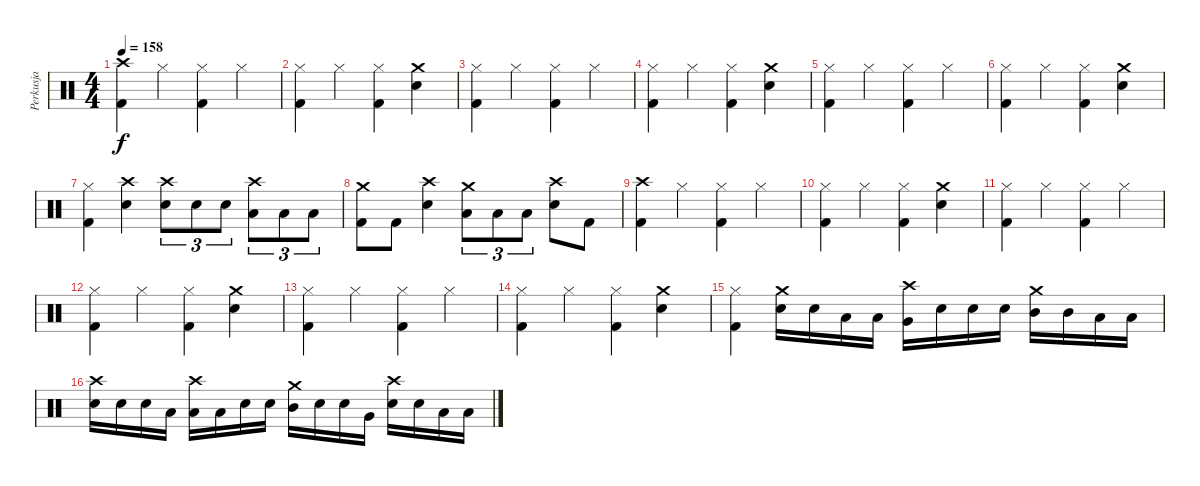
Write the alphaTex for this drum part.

\track ("Perkusja" "Perkusja") {instrument percussion}
\staff {score}
\articulation defaults
\ts (4 4)
\tempo 158
\clef neutral
\ks c
("Crash high (hit)" "Kick (hit) 2").4{dy f} "Hi-Hat (closed)".4 ("Hi-Hat (closed)" "Kick (hit) 2").4 "Hi-Hat (closed)".4 |
("Hi-Hat (closed)" "Kick (hit) 2").4 "Hi-Hat (closed)".4 ("Hi-Hat (closed)" "Kick (hit) 2").4 ("Crash medium (hit)" "Snare (hit) 2").4 |
("Hi-Hat (closed)" "Kick (hit) 2").4 "Hi-Hat (closed)".4 ("Hi-Hat (closed)" "Kick (hit) 2").4 "Hi-Hat (closed)".4 |
("Hi-Hat (closed)" "Kick (hit) 2").4 "Hi-Hat (closed)".4 ("Hi-Hat (closed)" "Kick (hit) 2").4 ("Crash medium (hit)" "Snare (hit) 2").4 |
("Hi-Hat (closed)" "Kick (hit) 2").4 "Hi-Hat (closed)".4 ("Hi-Hat (closed)" "Kick (hit) 2").4 "Hi-Hat (closed)".4 |
("Hi-Hat (closed)" "Kick (hit) 2").4 "Hi-Hat (closed)".4 ("Hi-Hat (closed)" "Kick (hit) 2").4 ("Crash medium (hit)" "Snare (hit) 2").4 |
("Hi-Hat (closed)" "Kick (hit) 2").4 ("Crash high (hit)" "Snare (hit) 2").4 ("Crash high (hit)" "Snare (hit) 2").8{tu (3 2)} "Snare (hit) 2".8{tu (3 2)} "Snare (hit) 2".8{tu (3 2)} ("Crash high (hit)" "Low Tom (hit)").8{tu (3 2)} "Low Tom (hit)".8{tu (3 2)} "Low Tom (hit)".8{tu (3 2)} |
("Crash medium (hit)" "Kick (hit) 2").8 "Kick (hit) 2".8 ("Crash high (hit)" "Snare (hit) 2").4 ("Crash medium (hit)" "Low Tom (hit)").8{tu (3 2)} "Low Tom (hit)".8{tu (3 2)} "Low Tom (hit)".8{tu (3 2)} ("Crash high (hit)" "Snare (hit) 2").8 "Kick (hit) 2".8 |
("Crash high (hit)" "Kick (hit) 2").4 "Hi-Hat (closed)".4 ("Hi-Hat (closed)" "Kick (hit) 2").4 "Hi-Hat (closed)".4 |
("Hi-Hat (closed)" "Kick (hit) 2").4 "Hi-Hat (closed)".4 ("Hi-Hat (closed)" "Kick (hit) 2").4 ("Crash medium (hit)" "Snare (hit) 2").4 |
("Hi-Hat (closed)" "Kick (hit) 2").4 "Hi-Hat (closed)".4 ("Hi-Hat (closed)" "Kick (hit) 2").4 "Hi-Hat (closed)".4 |
("Hi-Hat (closed)" "Kick (hit) 2").4 "Hi-Hat (closed)".4 ("Hi-Hat (closed)" "Kick (hit) 2").4 ("Crash medium (hit)" "Snare (hit) 2").4 |
("Hi-Hat (closed)" "Kick (hit) 2").4 "Hi-Hat (closed)".4 ("Hi-Hat (closed)" "Kick (hit) 2").4 "Hi-Hat (closed)".4 |
("Hi-Hat (closed)" "Kick (hit) 2").4 "Hi-Hat (closed)".4 ("Hi-Hat (closed)" "Kick (hit) 2").4 ("Crash medium (hit)" "Snare (hit) 2").4 |
("Hi-Hat (closed)" "Kick (hit) 2").4 ("Crash medium (hit)" "Snare (hit) 2").16 "Snare (hit) 2".16 "Low Tom (hit)".16 "Low Tom (hit)".16 ("Crash high (hit)" "Very Low Tom (hit)").16 "Snare (hit) 2".16 "Snare (hit) 2".16 "Snare (hit) 2".16 ("Crash medium (hit)" "Mid Tom (hit)").16 "Mid Tom (hit)".16 "Low Tom (hit)".16 "Low Tom (hit)".16 |
("Crash high (hit)" "Snare (hit) 2").16 "Snare (hit) 2".16 "Snare (hit) 2".16 "Low Tom (hit)".16 ("Crash high (hit)" "Low Tom (hit)").16 "Low Tom (hit)".16 "Snare (hit) 2".16 "Snare (hit) 2".16 ("Crash medium (hit)" "Mid Tom (hit)").16 "Snare (hit) 2".16 "Snare (hit) 2".16 "Very Low Tom (hit)".16 ("Crash high (hit)" "Snare (hit) 2").16 "Snare (hit) 2".16 "Low Tom (hit)".16 "Low Tom (hit)".16
